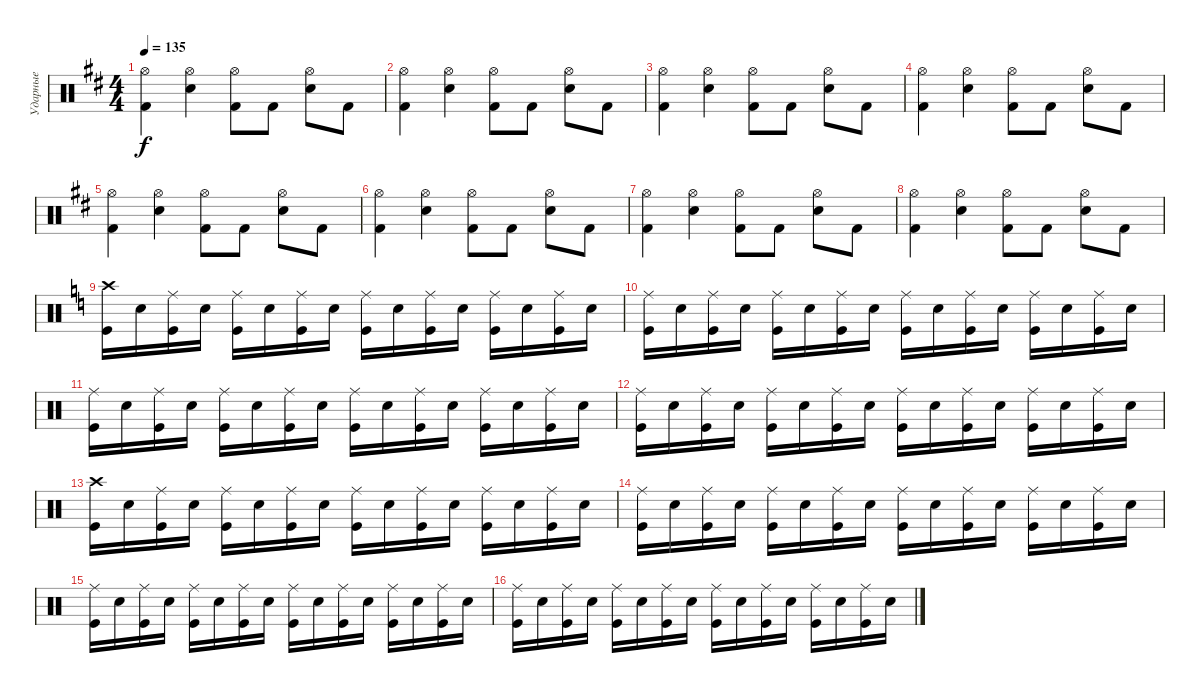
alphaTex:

\track ("Ударные" "Ударные") {instrument percussion}
\staff {score}
\articulation defaults
\ts (4 4)
\tempo 135
\clef neutral
\ks d
("Kick (hit) 2" "Hi-Hat (open)").4{dy f} ("Snare (hit) 2" "Hi-Hat (open)").4 ("Kick (hit) 2" "Hi-Hat (open)").8 "Kick (hit) 2".8 ("Snare (hit) 2" "Hi-Hat (open)").8 "Kick (hit) 2".8 |
("Kick (hit) 2" "Hi-Hat (open)").4 ("Snare (hit) 2" "Hi-Hat (open)").4 ("Kick (hit) 2" "Hi-Hat (open)").8 "Kick (hit) 2".8 ("Snare (hit) 2" "Hi-Hat (open)").8 "Kick (hit) 2".8 |
("Kick (hit) 2" "Hi-Hat (open)").4 ("Snare (hit) 2" "Hi-Hat (open)").4 ("Kick (hit) 2" "Hi-Hat (open)").8 "Kick (hit) 2".8 ("Snare (hit) 2" "Hi-Hat (open)").8 "Kick (hit) 2".8 |
("Kick (hit) 2" "Hi-Hat (open)").4 ("Snare (hit) 2" "Hi-Hat (open)").4 ("Kick (hit) 2" "Hi-Hat (open)").8 "Kick (hit) 2".8 ("Snare (hit) 2" "Hi-Hat (open)").8 "Kick (hit) 2".8 |
("Kick (hit) 2" "Hi-Hat (open)").4 ("Snare (hit) 2" "Hi-Hat (open)").4 ("Kick (hit) 2" "Hi-Hat (open)").8 "Kick (hit) 2".8 ("Snare (hit) 2" "Hi-Hat (open)").8 "Kick (hit) 2".8 |
("Kick (hit) 2" "Hi-Hat (open)").4 ("Snare (hit) 2" "Hi-Hat (open)").4 ("Kick (hit) 2" "Hi-Hat (open)").8 "Kick (hit) 2".8 ("Snare (hit) 2" "Hi-Hat (open)").8 "Kick (hit) 2".8 |
("Kick (hit) 2" "Hi-Hat (open)").4 ("Snare (hit) 2" "Hi-Hat (open)").4 ("Kick (hit) 2" "Hi-Hat (open)").8 "Kick (hit) 2".8 ("Snare (hit) 2" "Hi-Hat (open)").8 "Kick (hit) 2".8 |
("Kick (hit) 2" "Hi-Hat (open)").4 ("Snare (hit) 2" "Hi-Hat (open)").4 ("Kick (hit) 2" "Hi-Hat (open)").8 "Kick (hit) 2".8 ("Snare (hit) 2" "Hi-Hat (open)").8 "Kick (hit) 2".8 |
\ks c
("Crash high (hit)" "Kick (hit)").16 "Electric Snare (hit)".16 ("Ride (middle)" "Kick (hit)").16 "Electric Snare (hit)".16 ("Ride (middle)" "Kick (hit)").16 "Electric Snare (hit)".16 ("Ride (middle)" "Kick (hit)").16 "Electric Snare (hit)".16 ("Ride (middle)" "Kick (hit)").16 "Electric Snare (hit)".16 ("Ride (middle)" "Kick (hit)").16 "Electric Snare (hit)".16 ("Ride (middle)" "Kick (hit)").16 "Electric Snare (hit)".16 ("Ride (middle)" "Kick (hit)").16 "Electric Snare (hit)".16 |
("Ride (middle)" "Kick (hit)").16 "Electric Snare (hit)".16 ("Ride (middle)" "Kick (hit)").16 "Electric Snare (hit)".16 ("Ride (middle)" "Kick (hit)").16 "Electric Snare (hit)".16 ("Ride (middle)" "Kick (hit)").16 "Electric Snare (hit)".16 ("Ride (middle)" "Kick (hit)").16 "Electric Snare (hit)".16 ("Ride (middle)" "Kick (hit)").16 "Electric Snare (hit)".16 ("Ride (middle)" "Kick (hit)").16 "Electric Snare (hit)".16 ("Ride (middle)" "Kick (hit)").16 "Electric Snare (hit)".16 |
("Ride (middle)" "Kick (hit)").16 "Electric Snare (hit)".16 ("Ride (middle)" "Kick (hit)").16 "Electric Snare (hit)".16 ("Ride (middle)" "Kick (hit)").16 "Electric Snare (hit)".16 ("Ride (middle)" "Kick (hit)").16 "Electric Snare (hit)".16 ("Ride (middle)" "Kick (hit)").16 "Electric Snare (hit)".16 ("Ride (middle)" "Kick (hit)").16 "Electric Snare (hit)".16 ("Ride (middle)" "Kick (hit)").16 "Electric Snare (hit)".16 ("Ride (middle)" "Kick (hit)").16 "Electric Snare (hit)".16 |
("Ride (middle)" "Kick (hit)").16 "Electric Snare (hit)".16 ("Ride (middle)" "Kick (hit)").16 "Electric Snare (hit)".16 ("Ride (middle)" "Kick (hit)").16 "Electric Snare (hit)".16 ("Ride (middle)" "Kick (hit)").16 "Electric Snare (hit)".16 ("Ride (middle)" "Kick (hit)").16 "Electric Snare (hit)".16 ("Ride (middle)" "Kick (hit)").16 "Electric Snare (hit)".16 ("Ride (middle)" "Kick (hit)").16 "Electric Snare (hit)".16 ("Ride (middle)" "Kick (hit)").16 "Electric Snare (hit)".16 |
("Crash high (hit)" "Kick (hit)").16 "Electric Snare (hit)".16 ("Ride (middle)" "Kick (hit)").16 "Electric Snare (hit)".16 ("Ride (middle)" "Kick (hit)").16 "Electric Snare (hit)".16 ("Ride (middle)" "Kick (hit)").16 "Electric Snare (hit)".16 ("Ride (middle)" "Kick (hit)").16 "Electric Snare (hit)".16 ("Ride (middle)" "Kick (hit)").16 "Electric Snare (hit)".16 ("Ride (middle)" "Kick (hit)").16 "Electric Snare (hit)".16 ("Ride (middle)" "Kick (hit)").16 "Electric Snare (hit)".16 |
("Ride (middle)" "Kick (hit)").16 "Electric Snare (hit)".16 ("Ride (middle)" "Kick (hit)").16 "Electric Snare (hit)".16 ("Ride (middle)" "Kick (hit)").16 "Electric Snare (hit)".16 ("Ride (middle)" "Kick (hit)").16 "Electric Snare (hit)".16 ("Ride (middle)" "Kick (hit)").16 "Electric Snare (hit)".16 ("Ride (middle)" "Kick (hit)").16 "Electric Snare (hit)".16 ("Ride (middle)" "Kick (hit)").16 "Electric Snare (hit)".16 ("Ride (middle)" "Kick (hit)").16 "Electric Snare (hit)".16 |
("Ride (middle)" "Kick (hit)").16 "Electric Snare (hit)".16 ("Ride (middle)" "Kick (hit)").16 "Electric Snare (hit)".16 ("Ride (middle)" "Kick (hit)").16 "Electric Snare (hit)".16 ("Ride (middle)" "Kick (hit)").16 "Electric Snare (hit)".16 ("Ride (middle)" "Kick (hit)").16 "Electric Snare (hit)".16 ("Ride (middle)" "Kick (hit)").16 "Electric Snare (hit)".16 ("Ride (middle)" "Kick (hit)").16 "Electric Snare (hit)".16 ("Ride (middle)" "Kick (hit)").16 "Electric Snare (hit)".16 |
("Ride (middle)" "Kick (hit)").16 "Electric Snare (hit)".16 ("Ride (middle)" "Kick (hit)").16 "Electric Snare (hit)".16 ("Ride (middle)" "Kick (hit)").16 "Electric Snare (hit)".16 ("Ride (middle)" "Kick (hit)").16 "Electric Snare (hit)".16 ("Ride (middle)" "Kick (hit)").16 "Electric Snare (hit)".16 ("Ride (middle)" "Kick (hit)").16 "Electric Snare (hit)".16 ("Ride (middle)" "Kick (hit)").16 "Electric Snare (hit)".16 ("Ride (middle)" "Kick (hit)").16 "Electric Snare (hit)".16
